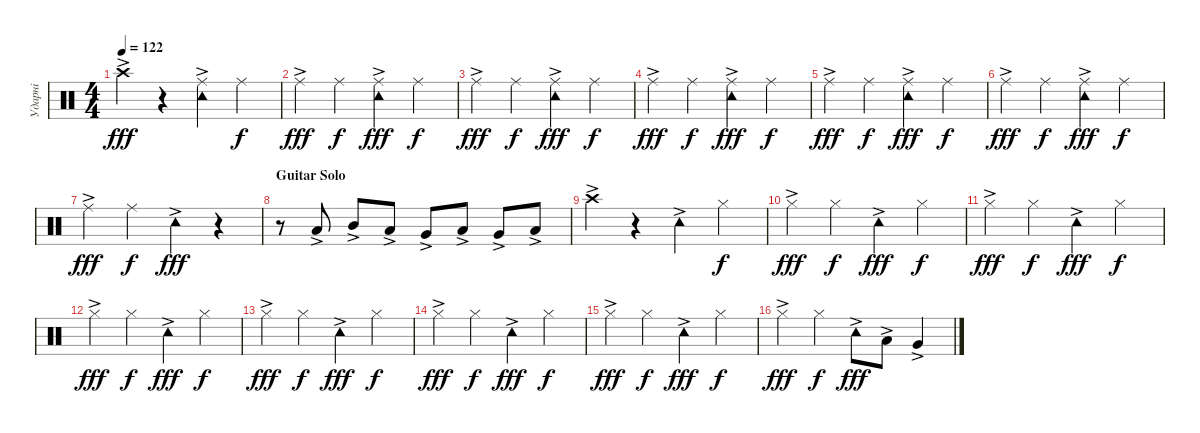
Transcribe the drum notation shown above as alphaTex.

\track ("Ударні" "Ударні") {instrument percussion}
\staff {score}
\articulation defaults
\ts (4 4)
\tempo 122
\clef neutral
\ks c "Crash high (hit)"{ac}.4{dy fff}
r.4 ("Ride (middle)"{ac} "Tambourine (hit)"{ac}).4 "Ride (middle)".4{dy f} |
"Ride (middle)"{ac}.4{dy fff} "Ride (middle)".4{dy f} ("Ride (middle)" "Tambourine (hit)"{ac}).4{dy fff} "Ride (middle)".4{dy f} |
"Ride (middle)"{ac}.4{dy fff} "Ride (middle)".4{dy f} ("Ride (middle)" "Tambourine (hit)"{ac}).4{dy fff} "Ride (middle)".4{dy f} |
"Ride (middle)"{ac}.4{dy fff} "Ride (middle)".4{dy f} ("Ride (middle)" "Tambourine (hit)"{ac}).4{dy fff} "Ride (middle)".4{dy f} |
"Ride (middle)"{ac}.4{dy fff} "Ride (middle)".4{dy f} ("Ride (middle)" "Tambourine (hit)"{ac}).4{dy fff} "Ride (middle)".4{dy f} |
"Ride (middle)"{ac}.4{dy fff} "Ride (middle)".4{dy f} ("Ride (middle)" "Tambourine (hit)"{ac}).4{dy fff} "Ride (middle)".4{dy f} |
"Ride (middle)"{ac}.4{dy fff} "Ride (middle)".4{dy f} "Tambourine (hit)"{ac}.4{dy fff} r.4 |
\section ("" "Guitar Solo")
r.8 "Low Tom (hit)"{ac}.8 "Mid Tom (hit)"{ac}.8 "Low Tom (hit)"{ac}.8 "Very Low Tom (hit)"{ac}.8 "Low Tom (hit)"{ac}.8 "Very Low Tom (hit)"{ac}.8 "Low Floor Tom (hit)"{ac}.8 |
"Crash high (hit)"{ac}.4 r.4 "Tambourine (hit)"{ac}.4 "Hi-Hat (closed)".4{dy f} |
"Hi-Hat (closed)"{ac}.4{dy fff} "Hi-Hat (closed)".4{dy f} "Tambourine (hit)"{ac}.4{dy fff} "Hi-Hat (closed)".4{dy f} |
"Hi-Hat (closed)"{ac}.4{dy fff} "Hi-Hat (closed)".4{dy f} "Tambourine (hit)"{ac}.4{dy fff} "Hi-Hat (closed)".4{dy f} |
"Hi-Hat (closed)"{ac}.4{dy fff} "Hi-Hat (closed)".4{dy f} "Tambourine (hit)"{ac}.4{dy fff} "Hi-Hat (closed)".4{dy f} |
"Hi-Hat (closed)"{ac}.4{dy fff} "Hi-Hat (closed)".4{dy f} "Tambourine (hit)"{ac}.4{dy fff} "Hi-Hat (closed)".4{dy f} |
"Hi-Hat (closed)"{ac}.4{dy fff} "Hi-Hat (closed)".4{dy f} "Tambourine (hit)"{ac}.4{dy fff} "Hi-Hat (closed)".4{dy f} |
"Hi-Hat (closed)"{ac}.4{dy fff} "Hi-Hat (closed)".4{dy f} "Tambourine (hit)"{ac}.4{dy fff} "Hi-Hat (closed)".4{dy f} |
"Hi-Hat (closed)"{ac}.4{dy fff} "Hi-Hat (closed)".4{dy f} "Tambourine (hit)"{ac}.8{dy fff} "Low Tom (hit)"{ac}.8 "Very Low Tom (hit)"{ac}.4
